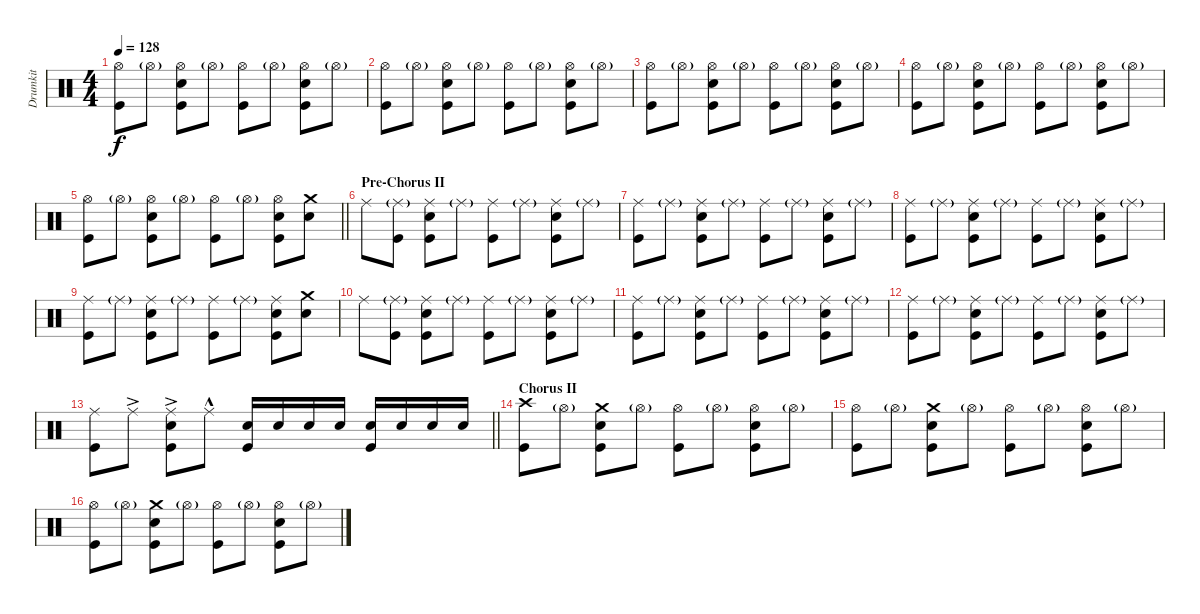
\track ("Drumkit" "Drumkit") {instrument percussion}
\staff
\articulation defaults
\ts (4 4)
\tempo 128
\clef neutral
\ks c
("Hi-Hat (open)" "Kick (hit)").8{dy f} "Hi-Hat (open)"{g}.8 ("Hi-Hat (open)" "Kick (hit)" "Snare (hit) 2").8 "Hi-Hat (open)"{g}.8 ("Hi-Hat (open)" "Kick (hit)").8 "Hi-Hat (open)"{g}.8 ("Hi-Hat (open)" "Kick (hit)" "Snare (hit) 2").8 "Hi-Hat (open)"{g}.8 |
("Hi-Hat (open)" "Kick (hit)").8 "Hi-Hat (open)"{g}.8 ("Hi-Hat (open)" "Kick (hit)" "Snare (hit) 2").8 "Hi-Hat (open)"{g}.8 ("Hi-Hat (open)" "Kick (hit)").8 "Hi-Hat (open)"{g}.8 ("Hi-Hat (open)" "Kick (hit)" "Snare (hit) 2").8 "Hi-Hat (open)"{g}.8 |
("Hi-Hat (open)" "Kick (hit)").8 "Hi-Hat (open)"{g}.8 ("Hi-Hat (open)" "Kick (hit)" "Snare (hit) 2").8 "Hi-Hat (open)"{g}.8 ("Hi-Hat (open)" "Kick (hit)").8 "Hi-Hat (open)"{g}.8 ("Hi-Hat (open)" "Kick (hit)" "Snare (hit) 2").8 "Hi-Hat (open)"{g}.8 |
("Hi-Hat (open)" "Kick (hit)").8 "Hi-Hat (open)"{g}.8 ("Hi-Hat (open)" "Kick (hit)" "Snare (hit) 2").8 "Hi-Hat (open)"{g}.8 ("Hi-Hat (open)" "Kick (hit)").8 "Hi-Hat (open)"{g}.8 ("Hi-Hat (open)" "Kick (hit)" "Snare (hit) 2").8 "Hi-Hat (open)"{g}.8 |
\barLineRight lightlight
("Hi-Hat (open)" "Kick (hit)").8 "Hi-Hat (open)"{g}.8 ("Hi-Hat (open)" "Kick (hit)" "Snare (hit) 2").8 "Hi-Hat (open)"{g}.8 ("Hi-Hat (open)" "Kick (hit)").8 "Hi-Hat (open)"{g}.8 ("Hi-Hat (open)" "Kick (hit)" "Snare (hit) 2").8 ("Crash medium (hit)" "Snare (hit) 2").8 |
\section ("" "Pre-Chorus II")
"Ride (middle)".8 ("Ride (middle)"{g} "Kick (hit)").8 ("Ride (middle)" "Snare (hit) 2" "Kick (hit)").8 "Ride (middle)"{g}.8 ("Ride (middle)" "Kick (hit)").8 "Ride (middle)"{g}.8 ("Ride (middle)" "Snare (hit) 2" "Kick (hit)").8 "Ride (middle)"{g}.8 |
("Ride (middle)" "Kick (hit)").8 "Ride (middle)"{g}.8 ("Ride (middle)" "Snare (hit) 2" "Kick (hit)").8 "Ride (middle)"{g}.8 ("Ride (middle)" "Kick (hit)").8 "Ride (middle)"{g}.8 ("Ride (middle)" "Snare (hit) 2" "Kick (hit)").8 "Ride (middle)"{g}.8 |
("Ride (middle)" "Kick (hit)").8 "Ride (middle)"{g}.8 ("Ride (middle)" "Snare (hit) 2" "Kick (hit)").8 "Ride (middle)"{g}.8 ("Ride (middle)" "Kick (hit)").8 "Ride (middle)"{g}.8 ("Ride (middle)" "Snare (hit) 2" "Kick (hit)").8 "Ride (middle)"{g}.8 |
("Ride (middle)" "Kick (hit)").8 "Ride (middle)"{g}.8 ("Ride (middle)" "Snare (hit) 2" "Kick (hit)").8 "Ride (middle)"{g}.8 ("Ride (middle)" "Kick (hit)").8 "Ride (middle)"{g}.8 ("Ride (middle)" "Snare (hit) 2" "Kick (hit)").8 ("Crash medium (hit)" "Snare (hit) 2").8 |
"Ride (middle)".8 ("Ride (middle)"{g} "Kick (hit)").8 ("Ride (middle)" "Snare (hit) 2" "Kick (hit)").8 "Ride (middle)"{g}.8 ("Ride (middle)" "Kick (hit)").8 "Ride (middle)"{g}.8 ("Ride (middle)" "Snare (hit) 2" "Kick (hit)").8 "Ride (middle)"{g}.8 |
("Ride (middle)" "Kick (hit)").8 "Ride (middle)"{g}.8 ("Ride (middle)" "Snare (hit) 2" "Kick (hit)").8 "Ride (middle)"{g}.8 ("Ride (middle)" "Kick (hit)").8 "Ride (middle)"{g}.8 ("Ride (middle)" "Snare (hit) 2" "Kick (hit)").8 "Ride (middle)"{g}.8 |
("Ride (middle)" "Kick (hit)").8 "Ride (middle)"{g}.8 ("Ride (middle)" "Snare (hit) 2" "Kick (hit)").8 "Ride (middle)"{g}.8 ("Ride (middle)" "Kick (hit)").8 "Ride (middle)"{g}.8 ("Ride (middle)" "Snare (hit) 2" "Kick (hit)").8 "Ride (middle)"{g}.8 |
\barLineRight lightlight
("Ride (middle)" "Kick (hit)").8 "Ride (middle)"{ac}.8 ("Ride (middle)"{ac} "Snare (hit) 2" "Kick (hit)").8 "Ride (middle)"{hac}.8 ("Snare (hit) 2" "Kick (hit)").16 "Snare (hit) 2".16 "Snare (hit) 2".16 "Snare (hit) 2".16 ("Snare (hit) 2" "Kick (hit)").16 "Snare (hit) 2".16 "Snare (hit) 2".16 "Snare (hit) 2".16 |
\section ("" "Chorus II")
("Crash high (hit)" "Kick (hit)").8 "Hi-Hat (open)"{g}.8 ("Crash medium (hit)" "Kick (hit)" "Snare (hit) 2").8 "Hi-Hat (open)"{g}.8 ("Hi-Hat (open)" "Kick (hit)").8 "Hi-Hat (open)"{g}.8 ("Hi-Hat (open)" "Kick (hit)" "Snare (hit) 2").8 "Hi-Hat (open)"{g}.8 |
("Hi-Hat (open)" "Kick (hit)").8 "Hi-Hat (open)"{g}.8 ("Crash medium (hit)" "Kick (hit)" "Snare (hit) 2").8 "Hi-Hat (open)"{g}.8 ("Hi-Hat (open)" "Kick (hit)").8 "Hi-Hat (open)"{g}.8 ("Hi-Hat (open)" "Kick (hit)" "Snare (hit) 2").8 "Hi-Hat (open)"{g}.8 |
("Hi-Hat (open)" "Kick (hit)").8 "Hi-Hat (open)"{g}.8 ("Crash medium (hit)" "Kick (hit)" "Snare (hit) 2").8 "Hi-Hat (open)"{g}.8 ("Hi-Hat (open)" "Kick (hit)").8 "Hi-Hat (open)"{g}.8 ("Hi-Hat (open)" "Kick (hit)" "Snare (hit) 2").8 "Hi-Hat (open)"{g}.8
